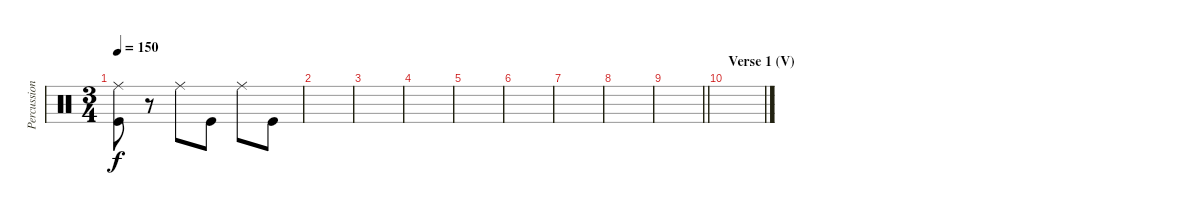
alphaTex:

\track ("Percussion" "Percussion") {instrument percussion}
\staff {score}
\articulation defaults
\ts (3 4)
\tempo 150
\clef neutral
\ks c
("Ride (middle)" "Kick (hit)").8{dy f} r.8 "Ride (middle)".8 "Kick (hit)".8 "Ride (middle)".8 "Kick (hit)".8 |
|
|
|
|
|
|
|
\barLineRight lightlight
|
\section ("" "Verse 1 (V)")
